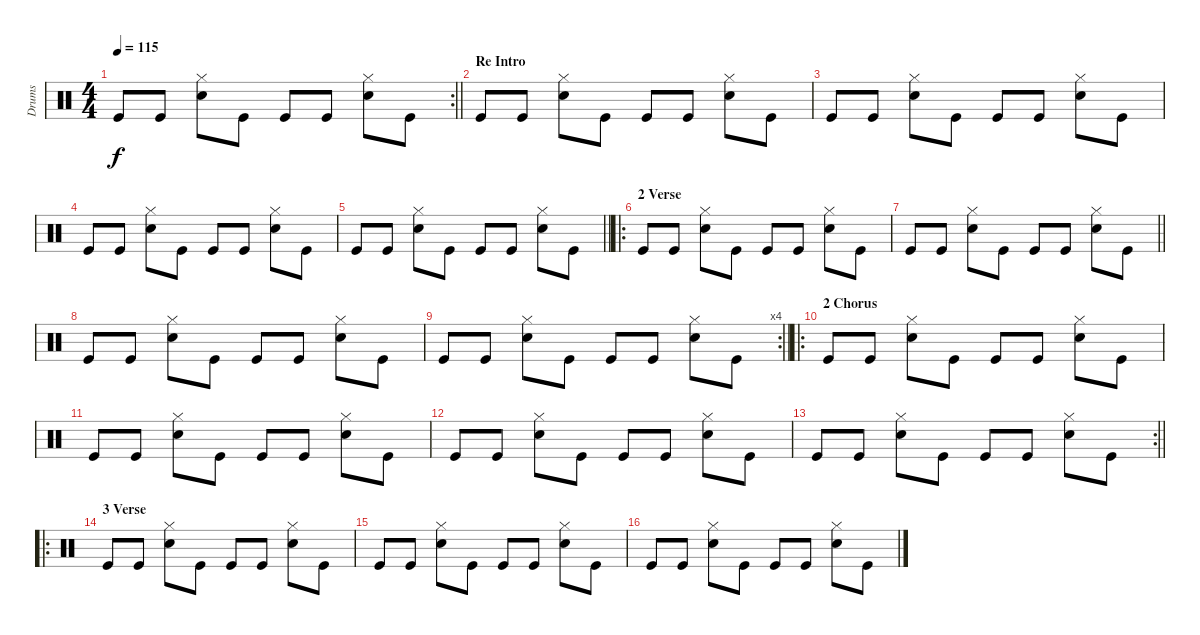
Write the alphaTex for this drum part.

\track ("Drums" "Drums") {instrument percussion}
\staff
\articulation defaults
\rc 2
\ts (4 4)
\tempo 115
\clef neutral
\barLineRight lightlight
\ks c "Kick (hit)".8{dy f} "Kick (hit)".8
("Hi-Hat (closed)" "Snare (hit) 2").8 "Kick (hit)".8 "Kick (hit)".8 "Kick (hit)".8 ("Hi-Hat (closed)" "Snare (hit) 2").8 "Kick (hit)".8 |
\section ("" "Re Intro")
"Kick (hit)".8 "Kick (hit)".8 ("Hi-Hat (closed)" "Snare (hit) 2").8 "Kick (hit)".8 "Kick (hit)".8 "Kick (hit)".8 ("Hi-Hat (closed)" "Snare (hit) 2").8 "Kick (hit)".8 |
"Kick (hit)".8 "Kick (hit)".8 ("Hi-Hat (closed)" "Snare (hit) 2").8 "Kick (hit)".8 "Kick (hit)".8 "Kick (hit)".8 ("Hi-Hat (closed)" "Snare (hit) 2").8 "Kick (hit)".8 |
"Kick (hit)".8 "Kick (hit)".8 ("Hi-Hat (closed)" "Snare (hit) 2").8 "Kick (hit)".8 "Kick (hit)".8 "Kick (hit)".8 ("Hi-Hat (closed)" "Snare (hit) 2").8 "Kick (hit)".8 |
\barLineRight lightlight "Kick (hit)".8 "Kick (hit)".8
("Hi-Hat (closed)" "Snare (hit) 2").8 "Kick (hit)".8 "Kick (hit)".8 "Kick (hit)".8 ("Hi-Hat (closed)" "Snare (hit) 2").8 "Kick (hit)".8 |
\ro
\section ("" "2 Verse")
"Kick (hit)".8 "Kick (hit)".8 ("Hi-Hat (closed)" "Snare (hit) 2").8 "Kick (hit)".8 "Kick (hit)".8 "Kick (hit)".8 ("Hi-Hat (closed)" "Snare (hit) 2").8 "Kick (hit)".8 |
\barLineRight lightlight "Kick (hit)".8 "Kick (hit)".8
("Hi-Hat (closed)" "Snare (hit) 2").8 "Kick (hit)".8 "Kick (hit)".8 "Kick (hit)".8 ("Hi-Hat (closed)" "Snare (hit) 2").8 "Kick (hit)".8 |
"Kick (hit)".8 "Kick (hit)".8 ("Hi-Hat (closed)" "Snare (hit) 2").8 "Kick (hit)".8 "Kick (hit)".8 "Kick (hit)".8 ("Hi-Hat (closed)" "Snare (hit) 2").8 "Kick (hit)".8 |
\rc 4
\barLineRight lightlight "Kick (hit)".8 "Kick (hit)".8
("Hi-Hat (closed)" "Snare (hit) 2").8 "Kick (hit)".8 "Kick (hit)".8 "Kick (hit)".8 ("Hi-Hat (closed)" "Snare (hit) 2").8 "Kick (hit)".8 |
\ro
\section ("" "2 Chorus")
"Kick (hit)".8 "Kick (hit)".8 ("Hi-Hat (closed)" "Snare (hit) 2").8 "Kick (hit)".8 "Kick (hit)".8 "Kick (hit)".8 ("Hi-Hat (closed)" "Snare (hit) 2").8 "Kick (hit)".8 |
"Kick (hit)".8 "Kick (hit)".8 ("Hi-Hat (closed)" "Snare (hit) 2").8 "Kick (hit)".8 "Kick (hit)".8 "Kick (hit)".8 ("Hi-Hat (closed)" "Snare (hit) 2").8 "Kick (hit)".8 |
"Kick (hit)".8 "Kick (hit)".8 ("Hi-Hat (closed)" "Snare (hit) 2").8 "Kick (hit)".8 "Kick (hit)".8 "Kick (hit)".8 ("Hi-Hat (closed)" "Snare (hit) 2").8 "Kick (hit)".8 |
\rc 2
\barLineRight lightlight "Kick (hit)".8 "Kick (hit)".8
("Hi-Hat (closed)" "Snare (hit) 2").8 "Kick (hit)".8 "Kick (hit)".8 "Kick (hit)".8 ("Hi-Hat (closed)" "Snare (hit) 2").8 "Kick (hit)".8 |
\ro
\section ("" "3 Verse")
"Kick (hit)".8 "Kick (hit)".8 ("Hi-Hat (closed)" "Snare (hit) 2").8 "Kick (hit)".8 "Kick (hit)".8 "Kick (hit)".8 ("Hi-Hat (closed)" "Snare (hit) 2").8 "Kick (hit)".8 |
"Kick (hit)".8 "Kick (hit)".8 ("Hi-Hat (closed)" "Snare (hit) 2").8 "Kick (hit)".8 "Kick (hit)".8 "Kick (hit)".8 ("Hi-Hat (closed)" "Snare (hit) 2").8 "Kick (hit)".8 |
"Kick (hit)".8 "Kick (hit)".8 ("Hi-Hat (closed)" "Snare (hit) 2").8 "Kick (hit)".8 "Kick (hit)".8 "Kick (hit)".8 ("Hi-Hat (closed)" "Snare (hit) 2").8 "Kick (hit)".8
